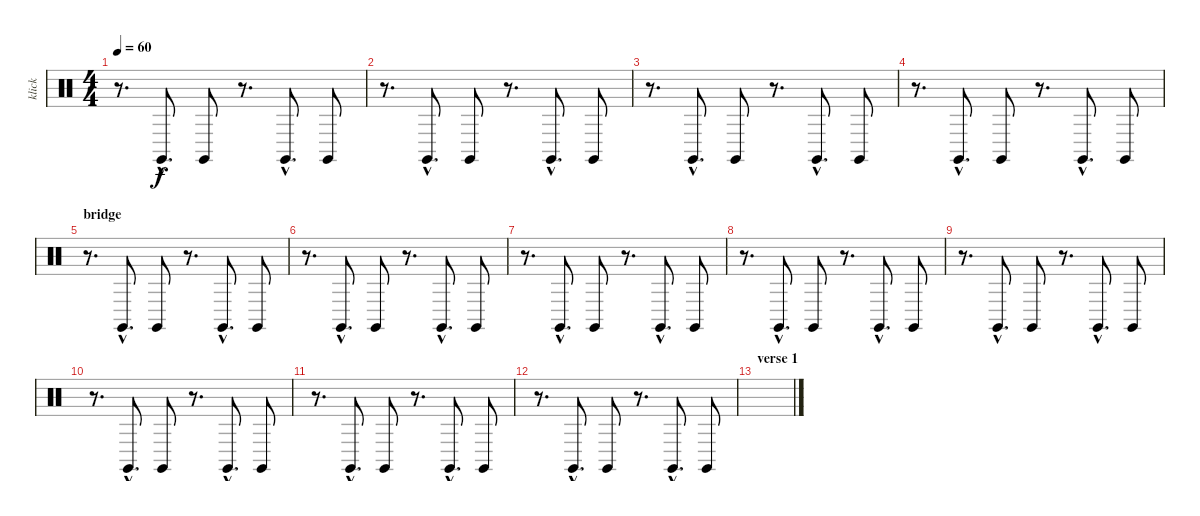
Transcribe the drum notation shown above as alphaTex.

\track ("klick" "klick") {instrument percussion}
\staff {score}
\articulation defaults
\ts (4 4)
\tempo 60
\clef neutral
\ks c
r.8{d dy f} "Claves (hit)"{hac}.8{d} "Claves (hit)".8 r.8{d} "Claves (hit)"{hac}.8{d} "Claves (hit)".8 |
r.8{d} "Claves (hit)"{hac}.8{d} "Claves (hit)".8 r.8{d} "Claves (hit)"{hac}.8{d} "Claves (hit)".8 |
r.8{d} "Claves (hit)"{hac}.8{d} "Claves (hit)".8 r.8{d} "Claves (hit)"{hac}.8{d} "Claves (hit)".8 |
r.8{d} "Claves (hit)"{hac}.8{d} "Claves (hit)".8 r.8{d} "Claves (hit)"{hac}.8{d} "Claves (hit)".8 |
\section ("" "bridge")
r.8{d} "Claves (hit)"{hac}.8{d} "Claves (hit)".8 r.8{d} "Claves (hit)"{hac}.8{d} "Claves (hit)".8 |
r.8{d} "Claves (hit)"{hac}.8{d} "Claves (hit)".8 r.8{d} "Claves (hit)"{hac}.8{d} "Claves (hit)".8 |
r.8{d} "Claves (hit)"{hac}.8{d} "Claves (hit)".8 r.8{d} "Claves (hit)"{hac}.8{d} "Claves (hit)".8 |
r.8{d} "Claves (hit)"{hac}.8{d} "Claves (hit)".8 r.8{d} "Claves (hit)"{hac}.8{d} "Claves (hit)".8 |
r.8{d} "Claves (hit)"{hac}.8{d} "Claves (hit)".8 r.8{d} "Claves (hit)"{hac}.8{d} "Claves (hit)".8 |
r.8{d} "Claves (hit)"{hac}.8{d} "Claves (hit)".8 r.8{d} "Claves (hit)"{hac}.8{d} "Claves (hit)".8 |
r.8{d} "Claves (hit)"{hac}.8{d} "Claves (hit)".8 r.8{d} "Claves (hit)"{hac}.8{d} "Claves (hit)".8 |
r.8{d} "Claves (hit)"{hac}.8{d} "Claves (hit)".8 r.8{d} "Claves (hit)"{hac}.8{d} "Claves (hit)".8 |
\section ("" "verse 1")
